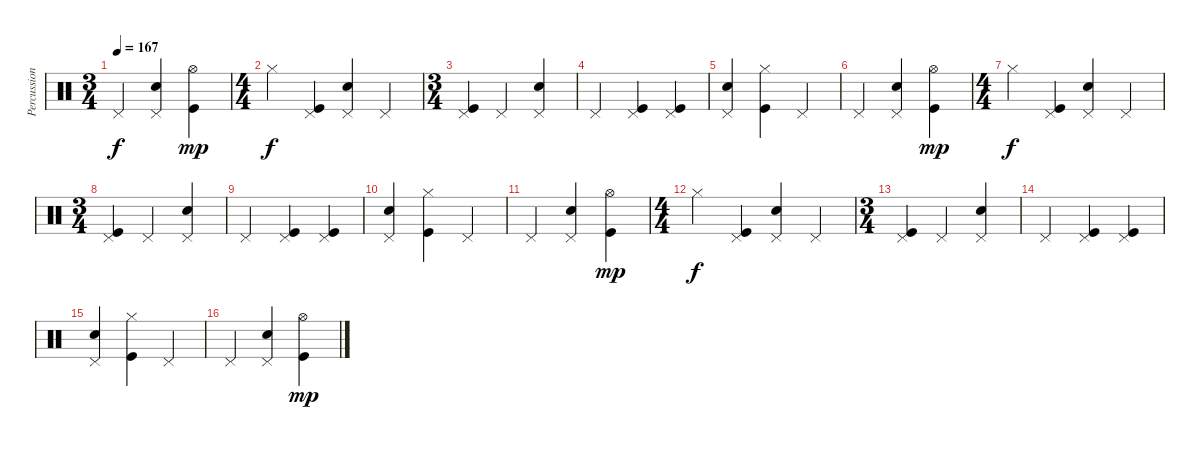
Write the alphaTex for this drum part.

\track ("Percussion" "Percussion") {instrument percussion}
\staff {score}
\articulation defaults
\ts (3 4)
\tempo 167
\clef neutral
\ks c "Pedal Hi-Hat (hit)".4{dy f}
("Pedal Hi-Hat (hit)" "Snare (hit) 2").4 ("Hi-Hat (open)" "Kick (hit)").4{dy mp} |
\ts (4 4)
"Hi-Hat (closed)".4{dy f} ("Pedal Hi-Hat (hit)" "Kick (hit)").4 ("Pedal Hi-Hat (hit)" "Snare (hit) 2").4 "Pedal Hi-Hat (hit)".4 |
\ts (3 4)
("Pedal Hi-Hat (hit)" "Kick (hit)").4 "Pedal Hi-Hat (hit)".4 ("Pedal Hi-Hat (hit)" "Snare (hit) 2").4 |
"Pedal Hi-Hat (hit)".4 ("Pedal Hi-Hat (hit)" "Kick (hit)").4 ("Pedal Hi-Hat (hit)" "Kick (hit)").4 |
("Pedal Hi-Hat (hit)" "Snare (hit) 2").4 ("Hi-Hat (closed)" "Kick (hit)").4 "Pedal Hi-Hat (hit)".4 |
"Pedal Hi-Hat (hit)".4 ("Pedal Hi-Hat (hit)" "Snare (hit) 2").4 ("Hi-Hat (open)" "Kick (hit)").4{dy mp} |
\ts (4 4)
"Hi-Hat (closed)".4{dy f} ("Pedal Hi-Hat (hit)" "Kick (hit)").4 ("Pedal Hi-Hat (hit)" "Snare (hit) 2").4 "Pedal Hi-Hat (hit)".4 |
\ts (3 4)
("Pedal Hi-Hat (hit)" "Kick (hit)").4 "Pedal Hi-Hat (hit)".4 ("Pedal Hi-Hat (hit)" "Snare (hit) 2").4 |
"Pedal Hi-Hat (hit)".4 ("Pedal Hi-Hat (hit)" "Kick (hit)").4 ("Pedal Hi-Hat (hit)" "Kick (hit)").4 |
("Pedal Hi-Hat (hit)" "Snare (hit) 2").4 ("Hi-Hat (closed)" "Kick (hit)").4 "Pedal Hi-Hat (hit)".4 |
"Pedal Hi-Hat (hit)".4 ("Pedal Hi-Hat (hit)" "Snare (hit) 2").4 ("Hi-Hat (open)" "Kick (hit)").4{dy mp} |
\ts (4 4)
"Hi-Hat (closed)".4{dy f} ("Pedal Hi-Hat (hit)" "Kick (hit)").4 ("Pedal Hi-Hat (hit)" "Snare (hit) 2").4 "Pedal Hi-Hat (hit)".4 |
\ts (3 4)
("Pedal Hi-Hat (hit)" "Kick (hit)").4 "Pedal Hi-Hat (hit)".4 ("Pedal Hi-Hat (hit)" "Snare (hit) 2").4 |
"Pedal Hi-Hat (hit)".4 ("Pedal Hi-Hat (hit)" "Kick (hit)").4 ("Pedal Hi-Hat (hit)" "Kick (hit)").4 |
("Pedal Hi-Hat (hit)" "Snare (hit) 2").4 ("Hi-Hat (closed)" "Kick (hit)").4 "Pedal Hi-Hat (hit)".4 |
"Pedal Hi-Hat (hit)".4 ("Pedal Hi-Hat (hit)" "Snare (hit) 2").4 ("Hi-Hat (open)" "Kick (hit)").4{dy mp}
